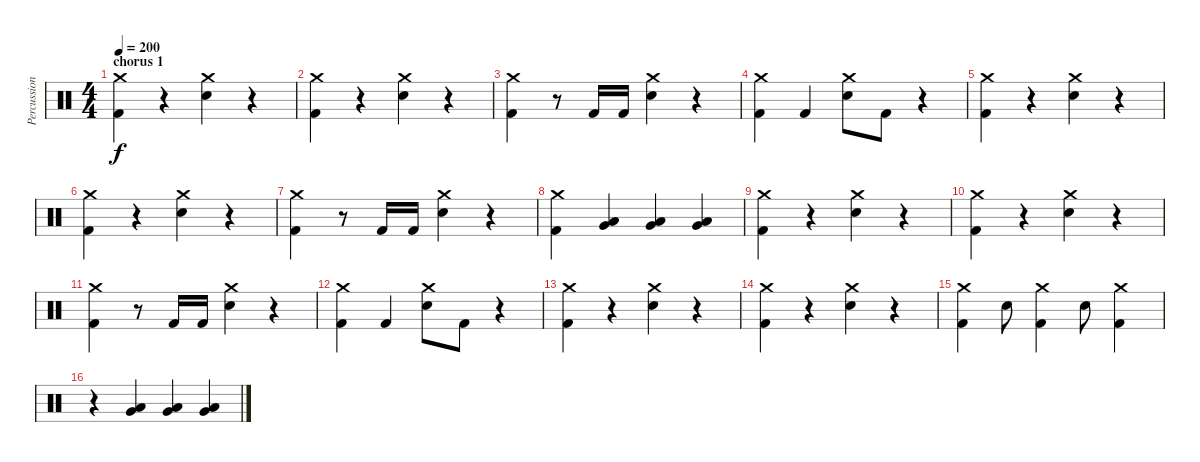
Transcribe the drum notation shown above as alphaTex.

\track ("Percussion" "Percussion") {instrument percussion}
\staff {score}
\articulation defaults
\ts (4 4)
\section ("" "chorus 1")
\tempo 200
\clef neutral
\ks c
("Crash medium (hit)" "Kick (hit) 2").4{dy f} r.4 ("Crash medium (hit)" "Electric Snare (hit)").4 r.4 |
("Crash medium (hit)" "Kick (hit) 2").4 r.4 ("Crash medium (hit)" "Electric Snare (hit)").4 r.4 |
("Crash medium (hit)" "Kick (hit) 2").4 r.8 "Kick (hit) 2".16 "Kick (hit) 2".16 ("Crash medium (hit)" "Electric Snare (hit)").4 r.4 |
("Crash medium (hit)" "Kick (hit) 2").4 "Kick (hit) 2".4 ("Crash medium (hit)" "Electric Snare (hit)").8 "Kick (hit) 2".8 r.4 |
("Crash medium (hit)" "Kick (hit) 2").4 r.4 ("Crash medium (hit)" "Electric Snare (hit)").4 r.4 |
("Crash medium (hit)" "Kick (hit) 2").4 r.4 ("Crash medium (hit)" "Electric Snare (hit)").4 r.4 |
("Crash medium (hit)" "Kick (hit) 2").4 r.8 "Kick (hit) 2".16 "Kick (hit) 2".16 ("Crash medium (hit)" "Electric Snare (hit)").4 r.4 |
("Crash medium (hit)" "Kick (hit) 2").4 ("Low Tom (hit)" "Very Low Tom (hit)").4 ("Low Tom (hit)" "Very Low Tom (hit)").4 ("Low Tom (hit)" "Very Low Tom (hit)").4 |
("Crash medium (hit)" "Kick (hit) 2").4 r.4 ("Crash medium (hit)" "Electric Snare (hit)").4 r.4 |
("Crash medium (hit)" "Kick (hit) 2").4 r.4 ("Crash medium (hit)" "Electric Snare (hit)").4 r.4 |
("Crash medium (hit)" "Kick (hit) 2").4 r.8 "Kick (hit) 2".16 "Kick (hit) 2".16 ("Crash medium (hit)" "Electric Snare (hit)").4 r.4 |
("Crash medium (hit)" "Kick (hit) 2").4 "Kick (hit) 2".4 ("Crash medium (hit)" "Electric Snare (hit)").8 "Kick (hit) 2".8 r.4 |
("Crash medium (hit)" "Kick (hit) 2").4 r.4 ("Crash medium (hit)" "Electric Snare (hit)").4 r.4 |
("Crash medium (hit)" "Kick (hit) 2").4 r.4 ("Crash medium (hit)" "Electric Snare (hit)").4 r.4 |
("Crash medium (hit)" "Kick (hit) 2").4 "Electric Snare (hit)".8 ("Crash medium (hit)" "Kick (hit) 2").4 "Electric Snare (hit)".8 ("Crash medium (hit)" "Kick (hit) 2").4 |
r.4 ("Low Tom (hit)" "Very Low Tom (hit)").4 ("Low Tom (hit)" "Very Low Tom (hit)").4 ("Low Tom (hit)" "Very Low Tom (hit)").4
